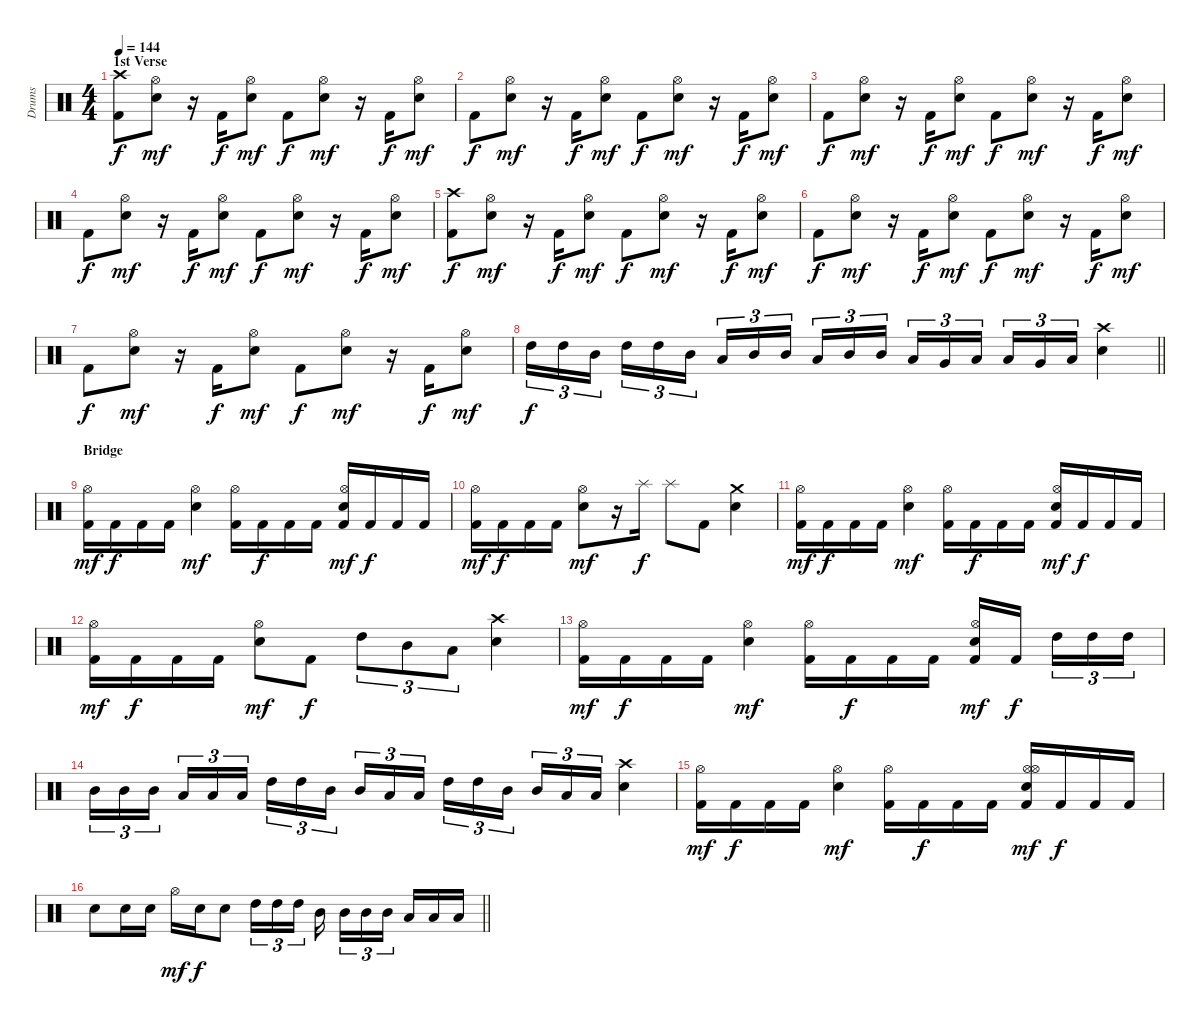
\track ("Drums" "Drums") {instrument percussion}
\staff {score}
\articulation defaults
\ts (4 4)
\section ("" "1st Verse")
\tempo 144
\clef neutral
\ks c
("Crash high (hit)" "Kick (hit) 2").8{dy f} ("Hi-Hat (open)" "Electric Snare (hit)").8{dy mf} r.16 "Kick (hit) 2".16{dy f} ("Hi-Hat (open)" "Electric Snare (hit)").8{dy mf} "Kick (hit) 2".8{dy f} ("Hi-Hat (open)" "Electric Snare (hit)").8{dy mf} r.16 "Kick (hit) 2".16{dy f} ("Hi-Hat (open)" "Electric Snare (hit)").8{dy mf} |
"Kick (hit) 2".8{dy f} ("Hi-Hat (open)" "Electric Snare (hit)").8{dy mf} r.16 "Kick (hit) 2".16{dy f} ("Hi-Hat (open)" "Electric Snare (hit)").8{dy mf} "Kick (hit) 2".8{dy f} ("Hi-Hat (open)" "Electric Snare (hit)").8{dy mf} r.16 "Kick (hit) 2".16{dy f} ("Hi-Hat (open)" "Electric Snare (hit)").8{dy mf} |
"Kick (hit) 2".8{dy f} ("Hi-Hat (open)" "Electric Snare (hit)").8{dy mf} r.16 "Kick (hit) 2".16{dy f} ("Hi-Hat (open)" "Electric Snare (hit)").8{dy mf} "Kick (hit) 2".8{dy f} ("Hi-Hat (open)" "Electric Snare (hit)").8{dy mf} r.16 "Kick (hit) 2".16{dy f} ("Hi-Hat (open)" "Electric Snare (hit)").8{dy mf} |
"Kick (hit) 2".8{dy f} ("Hi-Hat (open)" "Electric Snare (hit)").8{dy mf} r.16 "Kick (hit) 2".16{dy f} ("Hi-Hat (open)" "Electric Snare (hit)").8{dy mf} "Kick (hit) 2".8{dy f} ("Hi-Hat (open)" "Electric Snare (hit)").8{dy mf} r.16 "Kick (hit) 2".16{dy f} ("Hi-Hat (open)" "Electric Snare (hit)").8{dy mf} |
("Crash high (hit)" "Kick (hit) 2").8{dy f} ("Hi-Hat (open)" "Electric Snare (hit)").8{dy mf} r.16 "Kick (hit) 2".16{dy f} ("Hi-Hat (open)" "Electric Snare (hit)").8{dy mf} "Kick (hit) 2".8{dy f} ("Hi-Hat (open)" "Electric Snare (hit)").8{dy mf} r.16 "Kick (hit) 2".16{dy f} ("Hi-Hat (open)" "Electric Snare (hit)").8{dy mf} |
"Kick (hit) 2".8{dy f} ("Hi-Hat (open)" "Electric Snare (hit)").8{dy mf} r.16 "Kick (hit) 2".16{dy f} ("Hi-Hat (open)" "Electric Snare (hit)").8{dy mf} "Kick (hit) 2".8{dy f} ("Hi-Hat (open)" "Electric Snare (hit)").8{dy mf} r.16 "Kick (hit) 2".16{dy f} ("Hi-Hat (open)" "Electric Snare (hit)").8{dy mf} |
"Kick (hit) 2".8{dy f} ("Hi-Hat (open)" "Electric Snare (hit)").8{dy mf} r.16 "Kick (hit) 2".16{dy f} ("Hi-Hat (open)" "Electric Snare (hit)").8{dy mf} "Kick (hit) 2".8{dy f} ("Hi-Hat (open)" "Electric Snare (hit)").8{dy mf} r.16 "Kick (hit) 2".16{dy f} ("Hi-Hat (open)" "Electric Snare (hit)").8{dy mf} |
\barLineRight lightlight "High Tom (hit)".16{tu (3 2) dy f} "High Tom (hit)".16{tu (3 2)} "Mid Tom (hit)".16{tu (3 2)} "High Tom (hit)".16{tu (3 2)} "High Tom (hit)".16{tu (3 2)} "Mid Tom (hit)".16{tu (3 2)} "Low Tom (hit)".16{tu (3 2)} "Mid Tom (hit)".16{tu (3 2)} "Mid Tom (hit)".16{tu (3 2)} "Low Tom (hit)".16{tu (3 2)} "Mid Tom (hit)".16{tu (3 2)} "Mid Tom (hit)".16{tu (3 2)} "Low Tom (hit)".16{tu (3 2)} "Very Low Tom (hit)".16{tu (3 2)} "Low Tom (hit)".16{tu (3 2)} "Low Tom (hit)".16{tu (3 2)} "Very Low Tom (hit)".16{tu (3 2)} "Low Tom (hit)".16{tu (3 2)}
("Crash high (hit)" "Electric Snare (hit)").4 |
\section ("" "Bridge")
("Hi-Hat (open)" "Kick (hit) 2").16{dy mf} "Kick (hit) 2".16{dy f} "Kick (hit) 2".16 "Kick (hit) 2".16 ("Hi-Hat (open)" "Electric Snare (hit)").4{dy mf} ("Hi-Hat (open)" "Kick (hit) 2").16 "Kick (hit) 2".16{dy f} "Kick (hit) 2".16 "Kick (hit) 2".16 ("Hi-Hat (open)" "Electric Snare (hit)" "Kick (hit) 2").16{dy mf} "Kick (hit) 2".16{dy f} "Kick (hit) 2".16 "Kick (hit) 2".16 |
("Hi-Hat (open)" "Kick (hit) 2").16{dy mf} "Kick (hit) 2".16{dy f} "Kick (hit) 2".16 "Kick (hit) 2".16 ("Hi-Hat (open)" "Electric Snare (hit)").8{dy mf} r.16 "Splash (hit)".16{dy f} "Splash (hit)".8 "Kick (hit) 2".8 ("Crash medium (hit)" "Electric Snare (hit)").4 |
("Hi-Hat (open)" "Kick (hit) 2").16{dy mf} "Kick (hit) 2".16{dy f} "Kick (hit) 2".16 "Kick (hit) 2".16 ("Hi-Hat (open)" "Electric Snare (hit)").4{dy mf} ("Hi-Hat (open)" "Kick (hit) 2").16 "Kick (hit) 2".16{dy f} "Kick (hit) 2".16 "Kick (hit) 2".16 ("Hi-Hat (open)" "Electric Snare (hit)" "Kick (hit) 2").16{dy mf} "Kick (hit) 2".16{dy f} "Kick (hit) 2".16 "Kick (hit) 2".16 |
("Hi-Hat (open)" "Kick (hit) 2").16{dy mf} "Kick (hit) 2".16{dy f} "Kick (hit) 2".16 "Kick (hit) 2".16 ("Hi-Hat (open)" "Electric Snare (hit)").8{dy mf} "Kick (hit) 2".8{dy f} "High Tom (hit)".8{tu (3 2)} "Mid Tom (hit)".8{tu (3 2)} "Low Tom (hit)".8{tu (3 2)} ("Crash high (hit)" "Electric Snare (hit)").4 |
("Hi-Hat (open)" "Kick (hit) 2").16{dy mf} "Kick (hit) 2".16{dy f} "Kick (hit) 2".16 "Kick (hit) 2".16 ("Hi-Hat (open)" "Electric Snare (hit)").4{dy mf} ("Hi-Hat (open)" "Kick (hit) 2").16 "Kick (hit) 2".16{dy f} "Kick (hit) 2".16 "Kick (hit) 2".16 ("Hi-Hat (open)" "Electric Snare (hit)" "Kick (hit) 2").16{dy mf} "Kick (hit) 2".16{dy f} "High Tom (hit)".16{tu (3 2)} "High Tom (hit)".16{tu (3 2)} "High Tom (hit)".16{tu (3 2)} |
"Mid Tom (hit)".16{tu (3 2)} "Mid Tom (hit)".16{tu (3 2)} "Mid Tom (hit)".16{tu (3 2)} "Low Tom (hit)".16{tu (3 2)} "Low Tom (hit)".16{tu (3 2)} "Low Tom (hit)".16{tu (3 2)} "High Tom (hit)".16{tu (3 2)} "High Tom (hit)".16{tu (3 2)} "Mid Tom (hit)".16{tu (3 2)} "Mid Tom (hit)".16{tu (3 2)} "Low Tom (hit)".16{tu (3 2)} "Low Tom (hit)".16{tu (3 2)} "High Tom (hit)".16{tu (3 2)} "High Tom (hit)".16{tu (3 2)} "Mid Tom (hit)".16{tu (3 2)} "Mid Tom (hit)".16{tu (3 2)} "Low Tom (hit)".16{tu (3 2)} "Low Tom (hit)".16{tu (3 2)} ("Crash high (hit)" "Electric Snare (hit)").4 |
("Hi-Hat (open)" "Kick (hit) 2").16{dy mf} "Kick (hit) 2".16{dy f} "Kick (hit) 2".16 "Kick (hit) 2".16 ("Hi-Hat (open)" "Electric Snare (hit)").4{dy mf} ("Hi-Hat (open)" "Kick (hit) 2").16 "Kick (hit) 2".16{dy f} "Kick (hit) 2".16 "Kick (hit) 2".16 ("Hi-Hat (open)" "Hi-Hat (open)" "Electric Snare (hit)" "Kick (hit) 2").16{dy mf} "Kick (hit) 2".16{dy f} "Kick (hit) 2".16 "Kick (hit) 2".16 |
\barLineRight lightlight "Electric Snare (hit)".8 "Electric Snare (hit)".16 "Electric Snare (hit)".16 "Hi-Hat (open)".16{dy mf} "Electric Snare (hit)".16{dy f} "Electric Snare (hit)".8 "High Tom (hit)".16{tu (3 2)} "High Tom (hit)".16{tu (3 2)} "High Tom (hit)".16{tu (3 2)} "Mid Tom (hit)".16 "Mid Tom (hit)".16{tu (3 2)} "Mid Tom (hit)".16{tu (3 2)} "Mid Tom (hit)".16{tu (3 2)} "Low Tom (hit)".16 "Low Tom (hit)".16 "Low Tom (hit)".16
